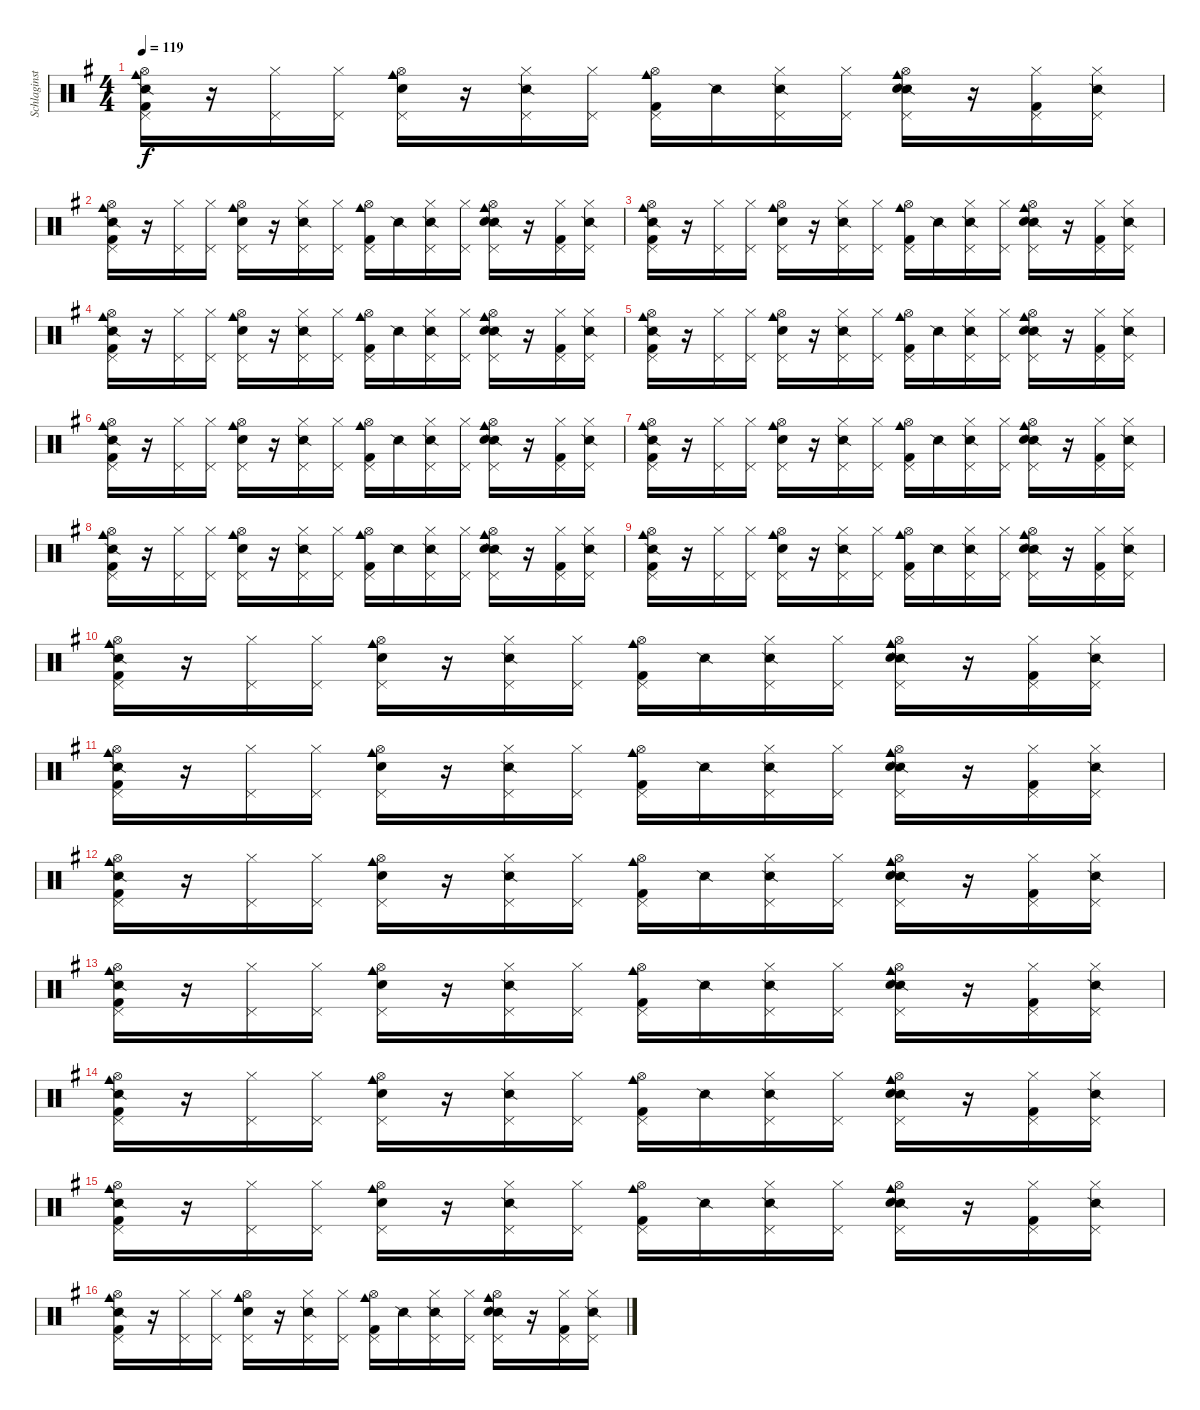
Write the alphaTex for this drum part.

\track ("Schlaginstrumente - Auswahl" "Schlaginst") {instrument percussion}
\staff {score}
\articulation defaults
\ts (4 4)
\tempo 119
\clef neutral
\ks g
("Pedal Hi-Hat (hit)" "Hi-Hat (open)" "Cowbell medium (hit)" "Snare (side stick) 2" "Kick (hit) 2").16{dy f} r.16 ("Pedal Hi-Hat (hit)" "Hi-Hat (closed)").16 ("Pedal Hi-Hat (hit)" "Hi-Hat (closed)").16 ("Pedal Hi-Hat (hit)" "Hi-Hat (open)" "Cowbell medium (hit)" "Snare (hit) 2").16 r.16 ("Pedal Hi-Hat (hit)" "Hi-Hat (closed)" "Snare (side stick) 2").16 ("Pedal Hi-Hat (hit)" "Hi-Hat (closed)").16 ("Pedal Hi-Hat (hit)" "Hi-Hat (open)" "Cowbell medium (hit)" "Kick (hit) 2").16 "Snare (side stick) 2".16 ("Pedal Hi-Hat (hit)" "Hi-Hat (closed)" "Snare (side stick) 2").16 ("Pedal Hi-Hat (hit)" "Hi-Hat (closed)").16 ("Pedal Hi-Hat (hit)" "Hi-Hat (open)" "Cowbell medium (hit)" "Snare (side stick) 2" "Snare (hit) 2").16 r.16 ("Pedal Hi-Hat (hit)" "Hi-Hat (closed)" "Kick (hit) 2").16 ("Pedal Hi-Hat (hit)" "Hi-Hat (closed)" "Snare (side stick) 2").16 |
("Pedal Hi-Hat (hit)" "Hi-Hat (open)" "Cowbell medium (hit)" "Snare (side stick) 2" "Kick (hit) 2").16 r.16 ("Pedal Hi-Hat (hit)" "Hi-Hat (closed)").16 ("Pedal Hi-Hat (hit)" "Hi-Hat (closed)").16 ("Pedal Hi-Hat (hit)" "Hi-Hat (open)" "Cowbell medium (hit)" "Snare (hit) 2").16 r.16 ("Pedal Hi-Hat (hit)" "Hi-Hat (closed)" "Snare (side stick) 2").16 ("Pedal Hi-Hat (hit)" "Hi-Hat (closed)").16 ("Pedal Hi-Hat (hit)" "Hi-Hat (open)" "Cowbell medium (hit)" "Kick (hit) 2").16 "Snare (side stick) 2".16 ("Pedal Hi-Hat (hit)" "Hi-Hat (closed)" "Snare (side stick) 2").16 ("Pedal Hi-Hat (hit)" "Hi-Hat (closed)").16 ("Pedal Hi-Hat (hit)" "Hi-Hat (open)" "Cowbell medium (hit)" "Snare (side stick) 2" "Snare (hit) 2").16 r.16 ("Pedal Hi-Hat (hit)" "Hi-Hat (closed)" "Kick (hit) 2").16 ("Pedal Hi-Hat (hit)" "Hi-Hat (closed)" "Snare (side stick) 2").16 |
("Pedal Hi-Hat (hit)" "Hi-Hat (open)" "Cowbell medium (hit)" "Snare (side stick) 2" "Kick (hit) 2").16 r.16 ("Pedal Hi-Hat (hit)" "Hi-Hat (closed)").16 ("Pedal Hi-Hat (hit)" "Hi-Hat (closed)").16 ("Pedal Hi-Hat (hit)" "Hi-Hat (open)" "Cowbell medium (hit)" "Snare (hit) 2").16 r.16 ("Pedal Hi-Hat (hit)" "Hi-Hat (closed)" "Snare (side stick) 2").16 ("Pedal Hi-Hat (hit)" "Hi-Hat (closed)").16 ("Pedal Hi-Hat (hit)" "Hi-Hat (open)" "Cowbell medium (hit)" "Kick (hit) 2").16 "Snare (side stick) 2".16 ("Pedal Hi-Hat (hit)" "Hi-Hat (closed)" "Snare (side stick) 2").16 ("Pedal Hi-Hat (hit)" "Hi-Hat (closed)").16 ("Pedal Hi-Hat (hit)" "Hi-Hat (open)" "Cowbell medium (hit)" "Snare (side stick) 2" "Snare (hit) 2").16 r.16 ("Pedal Hi-Hat (hit)" "Hi-Hat (closed)" "Kick (hit) 2").16 ("Pedal Hi-Hat (hit)" "Hi-Hat (closed)" "Snare (side stick) 2").16 |
("Pedal Hi-Hat (hit)" "Hi-Hat (open)" "Cowbell medium (hit)" "Snare (side stick) 2" "Kick (hit) 2").16 r.16 ("Pedal Hi-Hat (hit)" "Hi-Hat (closed)").16 ("Pedal Hi-Hat (hit)" "Hi-Hat (closed)").16 ("Pedal Hi-Hat (hit)" "Hi-Hat (open)" "Cowbell medium (hit)" "Snare (hit) 2").16 r.16 ("Pedal Hi-Hat (hit)" "Hi-Hat (closed)" "Snare (side stick) 2").16 ("Pedal Hi-Hat (hit)" "Hi-Hat (closed)").16 ("Pedal Hi-Hat (hit)" "Hi-Hat (open)" "Cowbell medium (hit)" "Kick (hit) 2").16 "Snare (side stick) 2".16 ("Pedal Hi-Hat (hit)" "Hi-Hat (closed)" "Snare (side stick) 2").16 ("Pedal Hi-Hat (hit)" "Hi-Hat (closed)").16 ("Pedal Hi-Hat (hit)" "Hi-Hat (open)" "Cowbell medium (hit)" "Snare (side stick) 2" "Snare (hit) 2").16 r.16 ("Pedal Hi-Hat (hit)" "Hi-Hat (closed)" "Kick (hit) 2").16 ("Pedal Hi-Hat (hit)" "Hi-Hat (closed)" "Snare (side stick) 2").16 |
("Pedal Hi-Hat (hit)" "Hi-Hat (open)" "Cowbell medium (hit)" "Snare (side stick) 2" "Kick (hit) 2").16 r.16 ("Pedal Hi-Hat (hit)" "Hi-Hat (closed)").16 ("Pedal Hi-Hat (hit)" "Hi-Hat (closed)").16 ("Pedal Hi-Hat (hit)" "Hi-Hat (open)" "Cowbell medium (hit)" "Snare (hit) 2").16 r.16 ("Pedal Hi-Hat (hit)" "Hi-Hat (closed)" "Snare (side stick) 2").16 ("Pedal Hi-Hat (hit)" "Hi-Hat (closed)").16 ("Pedal Hi-Hat (hit)" "Hi-Hat (open)" "Cowbell medium (hit)" "Kick (hit) 2").16 "Snare (side stick) 2".16 ("Pedal Hi-Hat (hit)" "Hi-Hat (closed)" "Snare (side stick) 2").16 ("Pedal Hi-Hat (hit)" "Hi-Hat (closed)").16 ("Pedal Hi-Hat (hit)" "Hi-Hat (open)" "Cowbell medium (hit)" "Snare (side stick) 2" "Snare (hit) 2").16 r.16 ("Pedal Hi-Hat (hit)" "Hi-Hat (closed)" "Kick (hit) 2").16 ("Pedal Hi-Hat (hit)" "Hi-Hat (closed)" "Snare (side stick) 2").16 |
("Pedal Hi-Hat (hit)" "Hi-Hat (open)" "Cowbell medium (hit)" "Snare (side stick) 2" "Kick (hit) 2").16 r.16 ("Pedal Hi-Hat (hit)" "Hi-Hat (closed)").16 ("Pedal Hi-Hat (hit)" "Hi-Hat (closed)").16 ("Pedal Hi-Hat (hit)" "Hi-Hat (open)" "Cowbell medium (hit)" "Snare (hit) 2").16 r.16 ("Pedal Hi-Hat (hit)" "Hi-Hat (closed)" "Snare (side stick) 2").16 ("Pedal Hi-Hat (hit)" "Hi-Hat (closed)").16 ("Pedal Hi-Hat (hit)" "Hi-Hat (open)" "Cowbell medium (hit)" "Kick (hit) 2").16 "Snare (side stick) 2".16 ("Pedal Hi-Hat (hit)" "Hi-Hat (closed)" "Snare (side stick) 2").16 ("Pedal Hi-Hat (hit)" "Hi-Hat (closed)").16 ("Pedal Hi-Hat (hit)" "Hi-Hat (open)" "Cowbell medium (hit)" "Snare (side stick) 2" "Snare (hit) 2").16 r.16 ("Pedal Hi-Hat (hit)" "Hi-Hat (closed)" "Kick (hit) 2").16 ("Pedal Hi-Hat (hit)" "Hi-Hat (closed)" "Snare (side stick) 2").16 |
("Pedal Hi-Hat (hit)" "Hi-Hat (open)" "Cowbell medium (hit)" "Snare (side stick) 2" "Kick (hit) 2").16 r.16 ("Pedal Hi-Hat (hit)" "Hi-Hat (closed)").16 ("Pedal Hi-Hat (hit)" "Hi-Hat (closed)").16 ("Pedal Hi-Hat (hit)" "Hi-Hat (open)" "Cowbell medium (hit)" "Snare (hit) 2").16 r.16 ("Pedal Hi-Hat (hit)" "Hi-Hat (closed)" "Snare (side stick) 2").16 ("Pedal Hi-Hat (hit)" "Hi-Hat (closed)").16 ("Pedal Hi-Hat (hit)" "Hi-Hat (open)" "Cowbell medium (hit)" "Kick (hit) 2").16 "Snare (side stick) 2".16 ("Pedal Hi-Hat (hit)" "Hi-Hat (closed)" "Snare (side stick) 2").16 ("Pedal Hi-Hat (hit)" "Hi-Hat (closed)").16 ("Pedal Hi-Hat (hit)" "Hi-Hat (open)" "Cowbell medium (hit)" "Snare (side stick) 2" "Snare (hit) 2").16 r.16 ("Pedal Hi-Hat (hit)" "Hi-Hat (closed)" "Kick (hit) 2").16 ("Pedal Hi-Hat (hit)" "Hi-Hat (closed)" "Snare (side stick) 2").16 |
("Pedal Hi-Hat (hit)" "Hi-Hat (open)" "Cowbell medium (hit)" "Snare (side stick) 2" "Kick (hit) 2").16 r.16 ("Pedal Hi-Hat (hit)" "Hi-Hat (closed)").16 ("Pedal Hi-Hat (hit)" "Hi-Hat (closed)").16 ("Pedal Hi-Hat (hit)" "Hi-Hat (open)" "Cowbell medium (hit)" "Snare (hit) 2").16 r.16 ("Pedal Hi-Hat (hit)" "Hi-Hat (closed)" "Snare (side stick) 2").16 ("Pedal Hi-Hat (hit)" "Hi-Hat (closed)").16 ("Pedal Hi-Hat (hit)" "Hi-Hat (open)" "Cowbell medium (hit)" "Kick (hit) 2").16 "Snare (side stick) 2".16 ("Pedal Hi-Hat (hit)" "Hi-Hat (closed)" "Snare (side stick) 2").16 ("Pedal Hi-Hat (hit)" "Hi-Hat (closed)").16 ("Pedal Hi-Hat (hit)" "Hi-Hat (open)" "Cowbell medium (hit)" "Snare (side stick) 2" "Snare (hit) 2").16 r.16 ("Pedal Hi-Hat (hit)" "Hi-Hat (closed)" "Kick (hit) 2").16 ("Pedal Hi-Hat (hit)" "Hi-Hat (closed)" "Snare (side stick) 2").16 |
("Pedal Hi-Hat (hit)" "Hi-Hat (open)" "Cowbell medium (hit)" "Snare (side stick) 2" "Kick (hit) 2").16 r.16 ("Pedal Hi-Hat (hit)" "Hi-Hat (closed)").16 ("Pedal Hi-Hat (hit)" "Hi-Hat (closed)").16 ("Pedal Hi-Hat (hit)" "Hi-Hat (open)" "Cowbell medium (hit)" "Snare (hit) 2").16 r.16 ("Pedal Hi-Hat (hit)" "Hi-Hat (closed)" "Snare (side stick) 2").16 ("Pedal Hi-Hat (hit)" "Hi-Hat (closed)").16 ("Pedal Hi-Hat (hit)" "Hi-Hat (open)" "Cowbell medium (hit)" "Kick (hit) 2").16 "Snare (side stick) 2".16 ("Pedal Hi-Hat (hit)" "Hi-Hat (closed)" "Snare (side stick) 2").16 ("Pedal Hi-Hat (hit)" "Hi-Hat (closed)").16 ("Pedal Hi-Hat (hit)" "Hi-Hat (open)" "Cowbell medium (hit)" "Snare (side stick) 2" "Snare (hit) 2").16 r.16 ("Pedal Hi-Hat (hit)" "Hi-Hat (closed)" "Kick (hit) 2").16 ("Pedal Hi-Hat (hit)" "Hi-Hat (closed)" "Snare (side stick) 2").16 |
("Pedal Hi-Hat (hit)" "Hi-Hat (open)" "Cowbell medium (hit)" "Snare (side stick) 2" "Kick (hit) 2").16 r.16 ("Pedal Hi-Hat (hit)" "Hi-Hat (closed)").16 ("Pedal Hi-Hat (hit)" "Hi-Hat (closed)").16 ("Pedal Hi-Hat (hit)" "Hi-Hat (open)" "Cowbell medium (hit)" "Snare (hit) 2").16 r.16 ("Pedal Hi-Hat (hit)" "Hi-Hat (closed)" "Snare (side stick) 2").16 ("Pedal Hi-Hat (hit)" "Hi-Hat (closed)").16 ("Pedal Hi-Hat (hit)" "Hi-Hat (open)" "Cowbell medium (hit)" "Kick (hit) 2").16 "Snare (side stick) 2".16 ("Pedal Hi-Hat (hit)" "Hi-Hat (closed)" "Snare (side stick) 2").16 ("Pedal Hi-Hat (hit)" "Hi-Hat (closed)").16 ("Pedal Hi-Hat (hit)" "Hi-Hat (open)" "Cowbell medium (hit)" "Snare (side stick) 2" "Snare (hit) 2").16 r.16 ("Pedal Hi-Hat (hit)" "Hi-Hat (closed)" "Kick (hit) 2").16 ("Pedal Hi-Hat (hit)" "Hi-Hat (closed)" "Snare (side stick) 2").16 |
("Pedal Hi-Hat (hit)" "Hi-Hat (open)" "Cowbell medium (hit)" "Snare (side stick) 2" "Kick (hit) 2").16 r.16 ("Pedal Hi-Hat (hit)" "Hi-Hat (closed)").16 ("Pedal Hi-Hat (hit)" "Hi-Hat (closed)").16 ("Pedal Hi-Hat (hit)" "Hi-Hat (open)" "Cowbell medium (hit)" "Snare (hit) 2").16 r.16 ("Pedal Hi-Hat (hit)" "Hi-Hat (closed)" "Snare (side stick) 2").16 ("Pedal Hi-Hat (hit)" "Hi-Hat (closed)").16 ("Pedal Hi-Hat (hit)" "Hi-Hat (open)" "Cowbell medium (hit)" "Kick (hit) 2").16 "Snare (side stick) 2".16 ("Pedal Hi-Hat (hit)" "Hi-Hat (closed)" "Snare (side stick) 2").16 ("Pedal Hi-Hat (hit)" "Hi-Hat (closed)").16 ("Pedal Hi-Hat (hit)" "Hi-Hat (open)" "Cowbell medium (hit)" "Snare (side stick) 2" "Snare (hit) 2").16 r.16 ("Pedal Hi-Hat (hit)" "Hi-Hat (closed)" "Kick (hit) 2").16 ("Pedal Hi-Hat (hit)" "Hi-Hat (closed)" "Snare (side stick) 2").16 |
("Pedal Hi-Hat (hit)" "Hi-Hat (open)" "Cowbell medium (hit)" "Snare (side stick) 2" "Kick (hit) 2").16 r.16 ("Pedal Hi-Hat (hit)" "Hi-Hat (closed)").16 ("Pedal Hi-Hat (hit)" "Hi-Hat (closed)").16 ("Pedal Hi-Hat (hit)" "Hi-Hat (open)" "Cowbell medium (hit)" "Snare (hit) 2").16 r.16 ("Pedal Hi-Hat (hit)" "Hi-Hat (closed)" "Snare (side stick) 2").16 ("Pedal Hi-Hat (hit)" "Hi-Hat (closed)").16 ("Pedal Hi-Hat (hit)" "Hi-Hat (open)" "Cowbell medium (hit)" "Kick (hit) 2").16 "Snare (side stick) 2".16 ("Pedal Hi-Hat (hit)" "Hi-Hat (closed)" "Snare (side stick) 2").16 ("Pedal Hi-Hat (hit)" "Hi-Hat (closed)").16 ("Pedal Hi-Hat (hit)" "Hi-Hat (open)" "Cowbell medium (hit)" "Snare (side stick) 2" "Snare (hit) 2").16 r.16 ("Pedal Hi-Hat (hit)" "Hi-Hat (closed)" "Kick (hit) 2").16 ("Pedal Hi-Hat (hit)" "Hi-Hat (closed)" "Snare (side stick) 2").16 |
("Pedal Hi-Hat (hit)" "Hi-Hat (open)" "Cowbell medium (hit)" "Snare (side stick) 2" "Kick (hit) 2").16 r.16 ("Pedal Hi-Hat (hit)" "Hi-Hat (closed)").16 ("Pedal Hi-Hat (hit)" "Hi-Hat (closed)").16 ("Pedal Hi-Hat (hit)" "Hi-Hat (open)" "Cowbell medium (hit)" "Snare (hit) 2").16 r.16 ("Pedal Hi-Hat (hit)" "Hi-Hat (closed)" "Snare (side stick) 2").16 ("Pedal Hi-Hat (hit)" "Hi-Hat (closed)").16 ("Pedal Hi-Hat (hit)" "Hi-Hat (open)" "Cowbell medium (hit)" "Kick (hit) 2").16 "Snare (side stick) 2".16 ("Pedal Hi-Hat (hit)" "Hi-Hat (closed)" "Snare (side stick) 2").16 ("Pedal Hi-Hat (hit)" "Hi-Hat (closed)").16 ("Pedal Hi-Hat (hit)" "Hi-Hat (open)" "Cowbell medium (hit)" "Snare (side stick) 2" "Snare (hit) 2").16 r.16 ("Pedal Hi-Hat (hit)" "Hi-Hat (closed)" "Kick (hit) 2").16 ("Pedal Hi-Hat (hit)" "Hi-Hat (closed)" "Snare (side stick) 2").16 |
("Pedal Hi-Hat (hit)" "Hi-Hat (open)" "Cowbell medium (hit)" "Snare (side stick) 2" "Kick (hit) 2").16 r.16 ("Pedal Hi-Hat (hit)" "Hi-Hat (closed)").16 ("Pedal Hi-Hat (hit)" "Hi-Hat (closed)").16 ("Pedal Hi-Hat (hit)" "Hi-Hat (open)" "Cowbell medium (hit)" "Snare (hit) 2").16 r.16 ("Pedal Hi-Hat (hit)" "Hi-Hat (closed)" "Snare (side stick) 2").16 ("Pedal Hi-Hat (hit)" "Hi-Hat (closed)").16 ("Pedal Hi-Hat (hit)" "Hi-Hat (open)" "Cowbell medium (hit)" "Kick (hit) 2").16 "Snare (side stick) 2".16 ("Pedal Hi-Hat (hit)" "Hi-Hat (closed)" "Snare (side stick) 2").16 ("Pedal Hi-Hat (hit)" "Hi-Hat (closed)").16 ("Pedal Hi-Hat (hit)" "Hi-Hat (open)" "Cowbell medium (hit)" "Snare (side stick) 2" "Snare (hit) 2").16 r.16 ("Pedal Hi-Hat (hit)" "Hi-Hat (closed)" "Kick (hit) 2").16 ("Pedal Hi-Hat (hit)" "Hi-Hat (closed)" "Snare (side stick) 2").16 |
("Pedal Hi-Hat (hit)" "Hi-Hat (open)" "Cowbell medium (hit)" "Snare (side stick) 2" "Kick (hit) 2").16 r.16 ("Pedal Hi-Hat (hit)" "Hi-Hat (closed)").16 ("Pedal Hi-Hat (hit)" "Hi-Hat (closed)").16 ("Pedal Hi-Hat (hit)" "Hi-Hat (open)" "Cowbell medium (hit)" "Snare (hit) 2").16 r.16 ("Pedal Hi-Hat (hit)" "Hi-Hat (closed)" "Snare (side stick) 2").16 ("Pedal Hi-Hat (hit)" "Hi-Hat (closed)").16 ("Pedal Hi-Hat (hit)" "Hi-Hat (open)" "Cowbell medium (hit)" "Kick (hit) 2").16 "Snare (side stick) 2".16 ("Pedal Hi-Hat (hit)" "Hi-Hat (closed)" "Snare (side stick) 2").16 ("Pedal Hi-Hat (hit)" "Hi-Hat (closed)").16 ("Pedal Hi-Hat (hit)" "Hi-Hat (open)" "Cowbell medium (hit)" "Snare (side stick) 2" "Snare (hit) 2").16 r.16 ("Pedal Hi-Hat (hit)" "Hi-Hat (closed)" "Kick (hit) 2").16 ("Pedal Hi-Hat (hit)" "Hi-Hat (closed)" "Snare (side stick) 2").16 |
("Pedal Hi-Hat (hit)" "Hi-Hat (open)" "Cowbell medium (hit)" "Snare (side stick) 2" "Kick (hit) 2").16 r.16 ("Pedal Hi-Hat (hit)" "Hi-Hat (closed)").16 ("Pedal Hi-Hat (hit)" "Hi-Hat (closed)").16 ("Pedal Hi-Hat (hit)" "Hi-Hat (open)" "Cowbell medium (hit)" "Snare (hit) 2").16 r.16 ("Pedal Hi-Hat (hit)" "Hi-Hat (closed)" "Snare (side stick) 2").16 ("Pedal Hi-Hat (hit)" "Hi-Hat (closed)").16 ("Pedal Hi-Hat (hit)" "Hi-Hat (open)" "Cowbell medium (hit)" "Kick (hit) 2").16 "Snare (side stick) 2".16 ("Pedal Hi-Hat (hit)" "Hi-Hat (closed)" "Snare (side stick) 2").16 ("Pedal Hi-Hat (hit)" "Hi-Hat (closed)").16 ("Pedal Hi-Hat (hit)" "Hi-Hat (open)" "Cowbell medium (hit)" "Snare (side stick) 2" "Snare (hit) 2").16 r.16 ("Pedal Hi-Hat (hit)" "Hi-Hat (closed)" "Kick (hit) 2").16 ("Pedal Hi-Hat (hit)" "Hi-Hat (closed)" "Snare (side stick) 2").16
